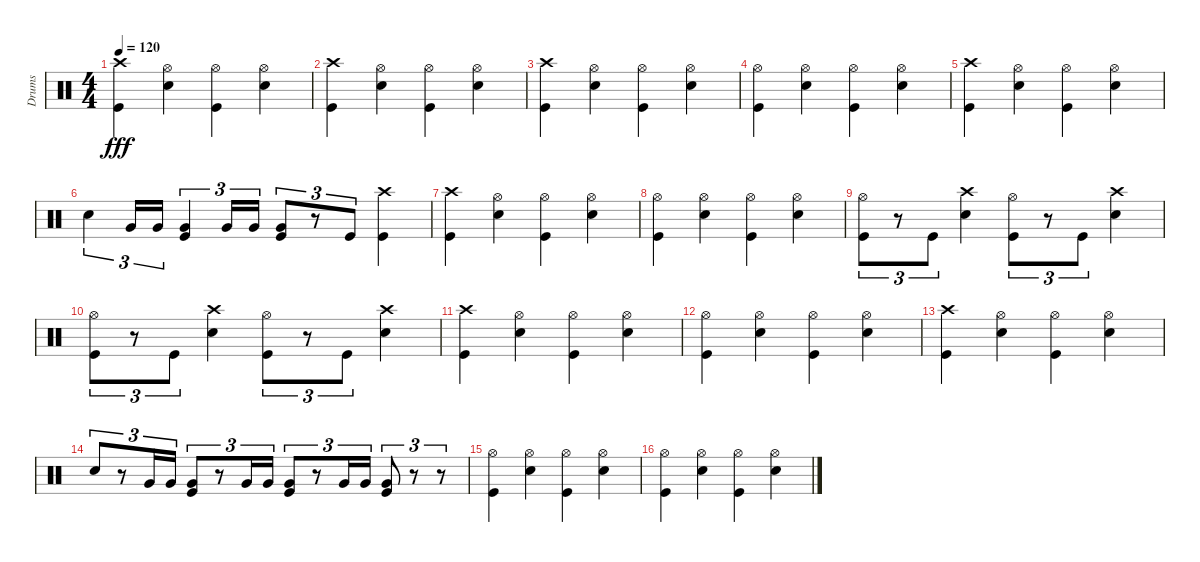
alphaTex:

\track ("Drums" "Drums") {instrument percussion}
\staff {score}
\articulation defaults
\ts (4 4)
\tempo 120
\clef neutral
\ks c
("Crash high (hit)" "Kick (hit)").4{dy fff} ("Hi-Hat (open)" "Snare (hit) 2").4 ("Hi-Hat (open)" "Kick (hit)").4 ("Hi-Hat (open)" "Snare (hit) 2").4 |
("Crash high (hit)" "Kick (hit)").4 ("Hi-Hat (open)" "Snare (hit) 2").4 ("Hi-Hat (open)" "Kick (hit)").4 ("Hi-Hat (open)" "Snare (hit) 2").4 |
("Crash high (hit)" "Kick (hit)").4 ("Hi-Hat (open)" "Snare (hit) 2").4 ("Hi-Hat (open)" "Kick (hit)").4 ("Hi-Hat (open)" "Snare (hit) 2").4 |
("Hi-Hat (open)" "Kick (hit)").4 ("Hi-Hat (open)" "Snare (hit) 2").4 ("Hi-Hat (open)" "Kick (hit)").4 ("Hi-Hat (open)" "Snare (hit) 2").4 |
("Crash high (hit)" "Kick (hit)").4 ("Hi-Hat (open)" "Snare (hit) 2").4 ("Hi-Hat (open)" "Kick (hit)").4 ("Hi-Hat (open)" "Snare (hit) 2").4 |
"Snare (hit) 2".4{tu (3 2)} "Very Low Tom (hit)".16{tu (3 2)} "Very Low Tom (hit)".16{tu (3 2)} ("Very Low Tom (hit)" "Kick (hit)").4{tu (3 2)} "Very Low Tom (hit)".16{tu (3 2)} "Very Low Tom (hit)".16{tu (3 2)} ("Very Low Tom (hit)" "Kick (hit)").8{tu (3 2)} r.8{tu (3 2)} "Kick (hit)".8{tu (3 2)} ("Crash high (hit)" "Kick (hit)").4 |
("Crash high (hit)" "Kick (hit)").4 ("Hi-Hat (open)" "Snare (hit) 2").4 ("Hi-Hat (open)" "Kick (hit)").4 ("Hi-Hat (open)" "Snare (hit) 2").4 |
("Hi-Hat (open)" "Kick (hit)").4 ("Hi-Hat (open)" "Snare (hit) 2").4 ("Hi-Hat (open)" "Kick (hit)").4 ("Hi-Hat (open)" "Snare (hit) 2").4 |
("Hi-Hat (open)" "Kick (hit)").8{tu (3 2)} r.8{tu (3 2)} "Kick (hit)".8{tu (3 2)} ("Crash high (hit)" "Snare (hit) 2").4 ("Hi-Hat (open)" "Kick (hit)").8{tu (3 2)} r.8{tu (3 2)} "Kick (hit)".8{tu (3 2)} ("Crash high (hit)" "Snare (hit) 2").4 |
("Hi-Hat (open)" "Kick (hit)").8{tu (3 2)} r.8{tu (3 2)} "Kick (hit)".8{tu (3 2)} ("Crash high (hit)" "Snare (hit) 2").4 ("Hi-Hat (open)" "Kick (hit)").8{tu (3 2)} r.8{tu (3 2)} "Kick (hit)".8{tu (3 2)} ("Crash high (hit)" "Snare (hit) 2").4 |
("Crash high (hit)" "Kick (hit)").4 ("Hi-Hat (open)" "Snare (hit) 2").4 ("Hi-Hat (open)" "Kick (hit)").4 ("Hi-Hat (open)" "Snare (hit) 2").4 |
("Hi-Hat (open)" "Kick (hit)").4 ("Hi-Hat (open)" "Snare (hit) 2").4 ("Hi-Hat (open)" "Kick (hit)").4 ("Hi-Hat (open)" "Snare (hit) 2").4 |
("Crash high (hit)" "Kick (hit)").4 ("Hi-Hat (open)" "Snare (hit) 2").4 ("Hi-Hat (open)" "Kick (hit)").4 ("Hi-Hat (open)" "Snare (hit) 2").4 |
"Snare (hit) 2".8{tu (3 2)} r.8{tu (3 2)} "Very Low Tom (hit)".16{tu (3 2)} "Very Low Tom (hit)".16{tu (3 2)} ("Very Low Tom (hit)" "Kick (hit)").8{tu (3 2)} r.8{tu (3 2)} "Very Low Tom (hit)".16{tu (3 2)} "Very Low Tom (hit)".16{tu (3 2)} ("Very Low Tom (hit)" "Kick (hit)").8{tu (3 2)} r.8{tu (3 2)} "Very Low Tom (hit)".16{tu (3 2)} "Very Low Tom (hit)".16{tu (3 2)} ("Very Low Tom (hit)" "Kick (hit)").8{tu (3 2)} r.8{tu (3 2)} r.8{tu (3 2)} |
("Hi-Hat (open)" "Kick (hit)").4 ("Hi-Hat (open)" "Snare (hit) 2").4 ("Hi-Hat (open)" "Kick (hit)").4 ("Hi-Hat (open)" "Snare (hit) 2").4 |
("Hi-Hat (open)" "Kick (hit)").4 ("Hi-Hat (open)" "Snare (hit) 2").4 ("Hi-Hat (open)" "Kick (hit)").4 ("Hi-Hat (open)" "Snare (hit) 2").4
